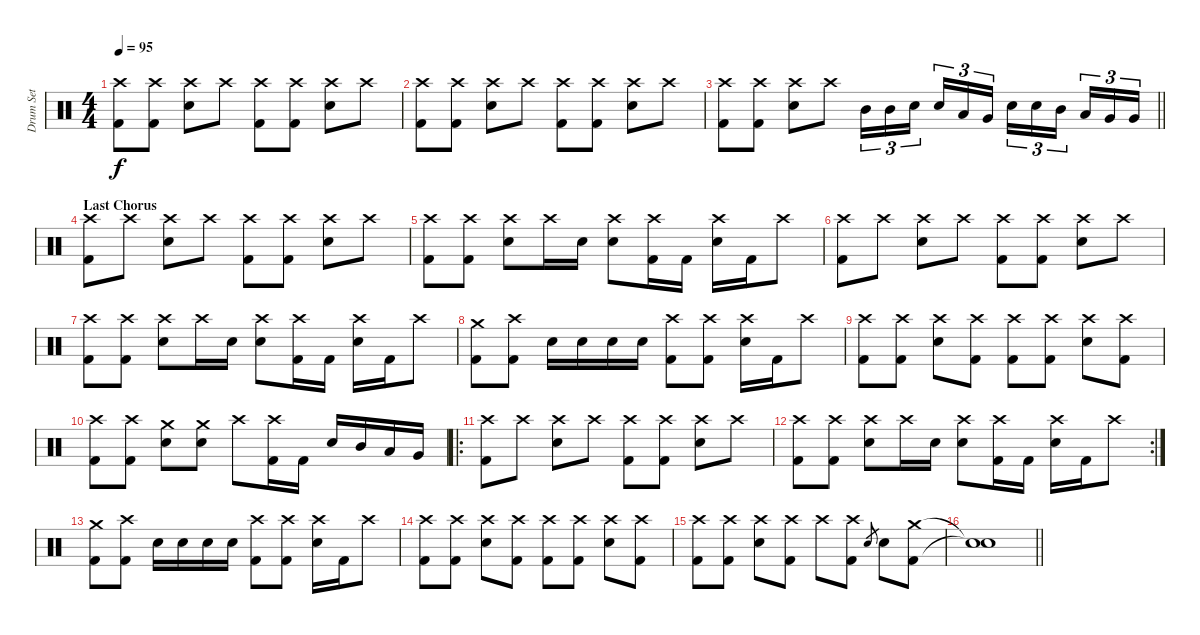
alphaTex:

\track ("Drum Set" "Drum Set") {instrument percussion}
\staff {score}
\articulation defaults
\ts (4 4)
\tempo 95
\clef neutral
\ks c
("Crash high (hit)" "Kick (hit) 2").8{dy f} ("Crash high (hit)" "Kick (hit) 2").8 ("Crash high (hit)" "Snare (hit) 2").8 "Crash high (hit)".8 ("Crash high (hit)" "Kick (hit) 2").8 ("Crash high (hit)" "Kick (hit) 2").8 ("Crash high (hit)" "Snare (hit) 2").8 "Crash high (hit)".8 |
("Crash high (hit)" "Kick (hit) 2").8 ("Crash high (hit)" "Kick (hit) 2").8 ("Crash high (hit)" "Snare (hit) 2").8 "Crash high (hit)".8 ("Crash high (hit)" "Kick (hit) 2").8 ("Crash high (hit)" "Kick (hit) 2").8 ("Crash high (hit)" "Snare (hit) 2").8 "Crash high (hit)".8 |
\barLineRight lightlight
("Crash high (hit)" "Kick (hit) 2").8 ("Crash high (hit)" "Kick (hit) 2").8 ("Crash high (hit)" "Snare (hit) 2").8 "Crash high (hit)".8 "Mid Tom (hit)".16{tu (3 2)} "Mid Tom (hit)".16{tu (3 2)} "Snare (hit) 2".16{tu (3 2) beam splitsecondary} "Snare (hit) 2".16{tu (3 2)} "Low Tom (hit)".16{tu (3 2)} "Very Low Tom (hit)".16{tu (3 2)} "Snare (hit) 2".16{tu (3 2)} "Snare (hit) 2".16{tu (3 2)} "Mid Tom (hit)".16{tu (3 2) beam splitsecondary} "Low Tom (hit)".16{tu (3 2)} "Very Low Tom (hit)".16{tu (3 2)} "Very Low Tom (hit)".16{tu (3 2)} |
\section ("" "Last Chorus")
("Crash high (hit)" "Kick (hit) 2").8 "Crash high (hit)".8 ("Crash high (hit)" "Snare (hit) 2").8 "Crash high (hit)".8 ("Crash high (hit)" "Kick (hit) 2").8 ("Crash high (hit)" "Kick (hit) 2").8 ("Crash high (hit)" "Snare (hit) 2").8 "Crash high (hit)".8 |
("Crash high (hit)" "Kick (hit) 2").8 ("Crash high (hit)" "Kick (hit) 2").8 ("Crash high (hit)" "Snare (hit) 2").8 "Crash high (hit)".16 "Snare (hit) 2".16 ("Crash high (hit)" "Snare (hit) 2").8 ("Crash high (hit)" "Kick (hit) 2").16 "Kick (hit) 2".16 ("Crash high (hit)" "Snare (hit) 2").16 "Kick (hit) 2".16 "Crash high (hit)".8 |
("Crash high (hit)" "Kick (hit) 2").8 "Crash high (hit)".8 ("Crash high (hit)" "Snare (hit) 2").8 "Crash high (hit)".8 ("Crash high (hit)" "Kick (hit) 2").8 ("Crash high (hit)" "Kick (hit) 2").8 ("Crash high (hit)" "Snare (hit) 2").8 "Crash high (hit)".8 |
("Crash high (hit)" "Kick (hit) 2").8 ("Crash high (hit)" "Kick (hit) 2").8 ("Crash high (hit)" "Snare (hit) 2").8 "Crash high (hit)".16 "Snare (hit) 2".16 ("Crash high (hit)" "Snare (hit) 2").8 ("Crash high (hit)" "Kick (hit) 2").16 "Kick (hit) 2".16 ("Crash high (hit)" "Snare (hit) 2").16 "Kick (hit) 2".16 "Crash high (hit)".8 |
("Crash medium (hit)" "Kick (hit) 2").8 ("Crash high (hit)" "Kick (hit) 2").8 "Snare (hit) 2".16 "Snare (hit) 2".16 "Snare (hit) 2".16 "Snare (hit) 2".16 ("Crash high (hit)" "Kick (hit) 2").8 ("Crash high (hit)" "Kick (hit) 2").8 ("Crash high (hit)" "Snare (hit) 2").16 "Kick (hit) 2".16 "Crash high (hit)".8 |
("Crash high (hit)" "Kick (hit) 2").8 ("Crash high (hit)" "Kick (hit) 2").8 ("Crash high (hit)" "Snare (hit) 2").8 ("Crash high (hit)" "Kick (hit) 2").8 ("Crash high (hit)" "Kick (hit) 2").8 ("Crash high (hit)" "Kick (hit) 2").8 ("Crash high (hit)" "Snare (hit) 2").8 ("Crash high (hit)" "Kick (hit) 2").8 |
("Crash high (hit)" "Kick (hit) 2").8 ("Crash high (hit)" "Kick (hit) 2").8 ("Crash medium (hit)" "Snare (hit) 2").8 ("Crash medium (hit)" "Snare (hit) 2").8 "Crash high (hit)".8 ("Crash high (hit)" "Kick (hit) 2").16 "Kick (hit) 2".16 "Snare (hit) 2".16 "Mid Tom (hit)".16 "Low Tom (hit)".16 "Very Low Tom (hit)".16 |
\ro
("Crash high (hit)" "Kick (hit) 2").8 "Crash high (hit)".8 ("Crash high (hit)" "Snare (hit) 2").8 "Crash high (hit)".8 ("Crash high (hit)" "Kick (hit) 2").8 ("Crash high (hit)" "Kick (hit) 2").8 ("Crash high (hit)" "Snare (hit) 2").8 "Crash high (hit)".8 |
\rc 2
("Crash high (hit)" "Kick (hit) 2").8 ("Crash high (hit)" "Kick (hit) 2").8 ("Crash high (hit)" "Snare (hit) 2").8 "Crash high (hit)".16 "Snare (hit) 2".16 ("Crash high (hit)" "Snare (hit) 2").8 ("Crash high (hit)" "Kick (hit) 2").16 "Kick (hit) 2".16 ("Crash high (hit)" "Snare (hit) 2").16 "Kick (hit) 2".16 "Crash high (hit)".8 |
("Crash medium (hit)" "Kick (hit) 2").8 ("Crash high (hit)" "Kick (hit) 2").8 "Snare (hit) 2".16 "Snare (hit) 2".16 "Snare (hit) 2".16 "Snare (hit) 2".16 ("Crash high (hit)" "Kick (hit) 2").8 ("Crash high (hit)" "Kick (hit) 2").8 ("Crash high (hit)" "Snare (hit) 2").16 "Kick (hit) 2".16 "Crash high (hit)".8 |
("Crash high (hit)" "Kick (hit) 2").8 ("Crash high (hit)" "Kick (hit) 2").8 ("Crash high (hit)" "Snare (hit) 2").8 ("Crash high (hit)" "Kick (hit) 2").8 ("Crash high (hit)" "Kick (hit) 2").8 ("Crash high (hit)" "Kick (hit) 2").8 ("Crash high (hit)" "Snare (hit) 2").8 ("Crash high (hit)" "Kick (hit) 2").8 |
("Crash high (hit)" "Kick (hit) 2").8 ("Crash high (hit)" "Kick (hit) 2").8 ("Crash high (hit)" "Snare (hit) 2").8 ("Crash high (hit)" "Kick (hit) 2").8 "Crash high (hit)".8 ("Crash high (hit)" "Kick (hit) 2").8 "Snare (hit) 2".8{gr} "Snare (hit) 2".8 ("Crash medium (hit)" "Kick (hit) 2").8 |
\barLineRight lightlight
("Snare (hit)"{t} "Snare (hit)"{t}).1
